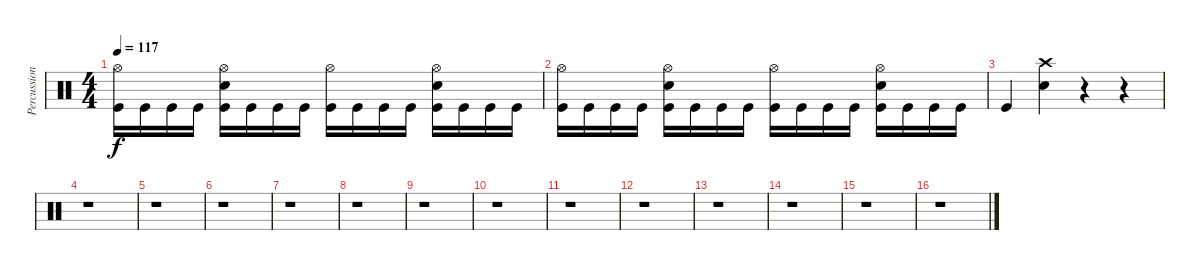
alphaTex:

\track ("Percussion" "Percussion") {instrument percussion}
\staff {score}
\articulation defaults
\ts (4 4)
\tempo 117
\clef neutral
\ks c
("Hi-Hat (open)" "Kick (hit)").16{dy f} "Kick (hit)".16 "Kick (hit)".16 "Kick (hit)".16 ("Hi-Hat (open)" "Electric Snare (hit)" "Kick (hit)").16 "Kick (hit)".16 "Kick (hit)".16 "Kick (hit)".16 ("Hi-Hat (open)" "Kick (hit)").16 "Kick (hit)".16 "Kick (hit)".16 "Kick (hit)".16 ("Hi-Hat (open)" "Electric Snare (hit)" "Kick (hit)").16 "Kick (hit)".16 "Kick (hit)".16 "Kick (hit)".16 |
("Hi-Hat (open)" "Kick (hit)").16 "Kick (hit)".16 "Kick (hit)".16 "Kick (hit)".16 ("Hi-Hat (open)" "Electric Snare (hit)" "Kick (hit)").16 "Kick (hit)".16 "Kick (hit)".16 "Kick (hit)".16 ("Hi-Hat (open)" "Kick (hit)").16 "Kick (hit)".16 "Kick (hit)".16 "Kick (hit)".16 ("Hi-Hat (open)" "Electric Snare (hit)" "Kick (hit)").16 "Kick (hit)".16 "Kick (hit)".16 "Kick (hit)".16 |
"Kick (hit)".4 ("Crash high (hit)" "Snare (hit) 2").4 r.4 r.4 |
r.1 |
r.1 |
r.1 |
r.1 |
r.1 |
r.1 |
r.1 |
r.1 |
r.1 |
r.1 |
r.1 |
r.1 |
r.1
